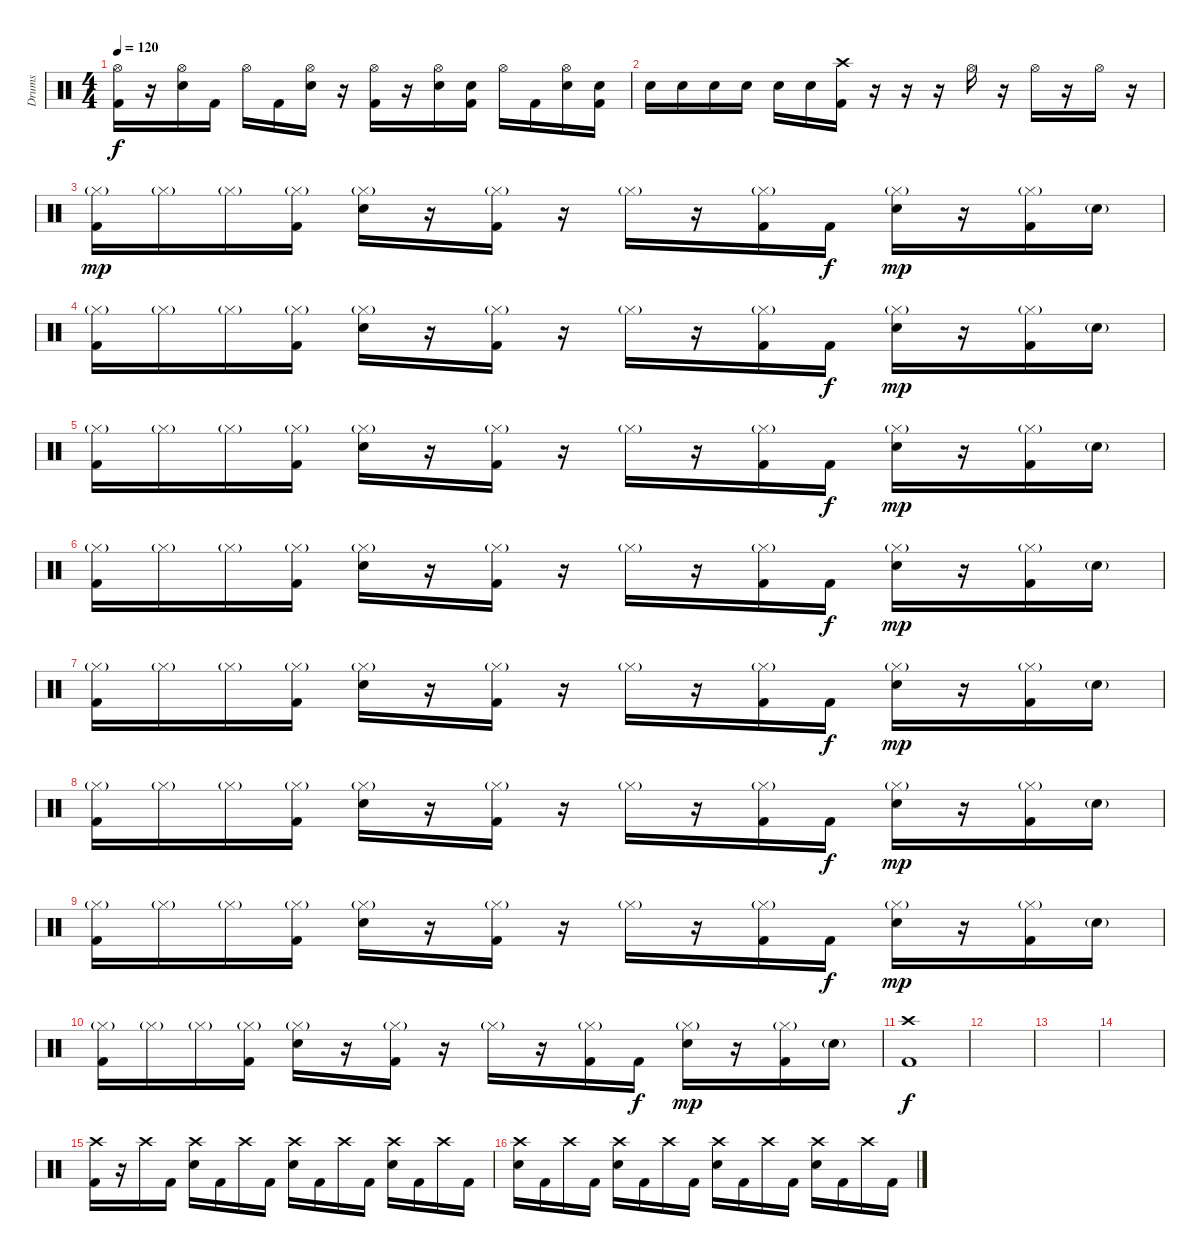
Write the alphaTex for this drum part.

\track ("Drums" "Drums") {instrument percussion}
\staff {score}
\articulation defaults
\ts (4 4)
\tempo 120
\clef neutral
\ks c
("Hi-Hat (open)" "Kick (hit) 2").16{dy f} r.16 ("Hi-Hat (open)" "Electric Snare (hit)").16 "Kick (hit) 2".16 "Hi-Hat (open)".16 "Kick (hit) 2".16 ("Hi-Hat (open)" "Electric Snare (hit)").16 r.16 ("Hi-Hat (open)" "Kick (hit) 2").16 r.16 ("Hi-Hat (open)" "Electric Snare (hit)").16 ("Electric Snare (hit)" "Kick (hit) 2").16 "Hi-Hat (open)".16 "Kick (hit) 2".16 ("Hi-Hat (open)" "Electric Snare (hit)").16 ("Electric Snare (hit)" "Kick (hit) 2").16 |
"Electric Snare (hit)".16 "Electric Snare (hit)".16 "Electric Snare (hit)".16 "Electric Snare (hit)".16 "Electric Snare (hit)".16 "Electric Snare (hit)".16 ("Crash high (hit)" "Kick (hit) 2").16 r.16 r.16 r.16 "Hi-Hat (open)".16 r.16 "Hi-Hat (open)".16 r.16 "Hi-Hat (open)".16 r.16 |
("Hi-Hat (closed)"{g} "Kick (hit) 2").16{dy mp} "Hi-Hat (closed)"{g}.16 "Hi-Hat (closed)"{g}.16 ("Hi-Hat (closed)"{g} "Kick (hit) 2").16 ("Hi-Hat (closed)"{g} "Electric Snare (hit)").16 r.16 ("Hi-Hat (closed)"{g} "Kick (hit) 2").16 r.16 "Hi-Hat (closed)"{g}.16 r.16 ("Hi-Hat (closed)"{g} "Kick (hit) 2").16 "Kick (hit) 2".16{dy f} ("Hi-Hat (closed)"{g} "Electric Snare (hit)").16{dy mp} r.16 ("Hi-Hat (closed)"{g} "Kick (hit) 2").16 "Electric Snare (hit)"{g}.16 |
("Hi-Hat (closed)"{g} "Kick (hit) 2").16 "Hi-Hat (closed)"{g}.16 "Hi-Hat (closed)"{g}.16 ("Hi-Hat (closed)"{g} "Kick (hit) 2").16 ("Hi-Hat (closed)"{g} "Electric Snare (hit)").16 r.16 ("Hi-Hat (closed)"{g} "Kick (hit) 2").16 r.16 "Hi-Hat (closed)"{g}.16 r.16 ("Hi-Hat (closed)"{g} "Kick (hit) 2").16 "Kick (hit) 2".16{dy f} ("Hi-Hat (closed)"{g} "Electric Snare (hit)").16{dy mp} r.16 ("Hi-Hat (closed)"{g} "Kick (hit) 2").16 "Electric Snare (hit)"{g}.16 |
("Hi-Hat (closed)"{g} "Kick (hit) 2").16 "Hi-Hat (closed)"{g}.16 "Hi-Hat (closed)"{g}.16 ("Hi-Hat (closed)"{g} "Kick (hit) 2").16 ("Hi-Hat (closed)"{g} "Electric Snare (hit)").16 r.16 ("Hi-Hat (closed)"{g} "Kick (hit) 2").16 r.16 "Hi-Hat (closed)"{g}.16 r.16 ("Hi-Hat (closed)"{g} "Kick (hit) 2").16 "Kick (hit) 2".16{dy f} ("Hi-Hat (closed)"{g} "Electric Snare (hit)").16{dy mp} r.16 ("Hi-Hat (closed)"{g} "Kick (hit) 2").16 "Electric Snare (hit)"{g}.16 |
("Hi-Hat (closed)"{g} "Kick (hit) 2").16 "Hi-Hat (closed)"{g}.16 "Hi-Hat (closed)"{g}.16 ("Hi-Hat (closed)"{g} "Kick (hit) 2").16 ("Hi-Hat (closed)"{g} "Electric Snare (hit)").16 r.16 ("Hi-Hat (closed)"{g} "Kick (hit) 2").16 r.16 "Hi-Hat (closed)"{g}.16 r.16 ("Hi-Hat (closed)"{g} "Kick (hit) 2").16 "Kick (hit) 2".16{dy f} ("Hi-Hat (closed)"{g} "Electric Snare (hit)").16{dy mp} r.16 ("Hi-Hat (closed)"{g} "Kick (hit) 2").16 "Electric Snare (hit)"{g}.16 |
("Hi-Hat (closed)"{g} "Kick (hit) 2").16 "Hi-Hat (closed)"{g}.16 "Hi-Hat (closed)"{g}.16 ("Hi-Hat (closed)"{g} "Kick (hit) 2").16 ("Hi-Hat (closed)"{g} "Electric Snare (hit)").16 r.16 ("Hi-Hat (closed)"{g} "Kick (hit) 2").16 r.16 "Hi-Hat (closed)"{g}.16 r.16 ("Hi-Hat (closed)"{g} "Kick (hit) 2").16 "Kick (hit) 2".16{dy f} ("Hi-Hat (closed)"{g} "Electric Snare (hit)").16{dy mp} r.16 ("Hi-Hat (closed)"{g} "Kick (hit) 2").16 "Electric Snare (hit)"{g}.16 |
("Hi-Hat (closed)"{g} "Kick (hit) 2").16 "Hi-Hat (closed)"{g}.16 "Hi-Hat (closed)"{g}.16 ("Hi-Hat (closed)"{g} "Kick (hit) 2").16 ("Hi-Hat (closed)"{g} "Electric Snare (hit)").16 r.16 ("Hi-Hat (closed)"{g} "Kick (hit) 2").16 r.16 "Hi-Hat (closed)"{g}.16 r.16 ("Hi-Hat (closed)"{g} "Kick (hit) 2").16 "Kick (hit) 2".16{dy f} ("Hi-Hat (closed)"{g} "Electric Snare (hit)").16{dy mp} r.16 ("Hi-Hat (closed)"{g} "Kick (hit) 2").16 "Electric Snare (hit)"{g}.16 |
("Hi-Hat (closed)"{g} "Kick (hit) 2").16 "Hi-Hat (closed)"{g}.16 "Hi-Hat (closed)"{g}.16 ("Hi-Hat (closed)"{g} "Kick (hit) 2").16 ("Hi-Hat (closed)"{g} "Electric Snare (hit)").16 r.16 ("Hi-Hat (closed)"{g} "Kick (hit) 2").16 r.16 "Hi-Hat (closed)"{g}.16 r.16 ("Hi-Hat (closed)"{g} "Kick (hit) 2").16 "Kick (hit) 2".16{dy f} ("Hi-Hat (closed)"{g} "Electric Snare (hit)").16{dy mp} r.16 ("Hi-Hat (closed)"{g} "Kick (hit) 2").16 "Electric Snare (hit)"{g}.16 |
("Hi-Hat (closed)"{g} "Kick (hit) 2").16 "Hi-Hat (closed)"{g}.16 "Hi-Hat (closed)"{g}.16 ("Hi-Hat (closed)"{g} "Kick (hit) 2").16 ("Hi-Hat (closed)"{g} "Electric Snare (hit)").16 r.16 ("Hi-Hat (closed)"{g} "Kick (hit) 2").16 r.16 "Hi-Hat (closed)"{g}.16 r.16 ("Hi-Hat (closed)"{g} "Kick (hit) 2").16 "Kick (hit) 2".16{dy f} ("Hi-Hat (closed)"{g} "Electric Snare (hit)").16{dy mp} r.16 ("Hi-Hat (closed)"{g} "Kick (hit) 2").16 "Electric Snare (hit)"{g}.16 |
("Crash high (hit)" "Kick (hit) 2").1{dy f} |
|
|
|
("Crash high (hit)" "Kick (hit) 2").16 r.16 "Crash high (hit)".16 "Kick (hit) 2".16 ("Crash high (hit)" "Electric Snare (hit)").16 "Kick (hit) 2".16 "Crash high (hit)".16 "Kick (hit) 2".16 ("Crash high (hit)" "Electric Snare (hit)").16 "Kick (hit) 2".16 "Crash high (hit)".16 "Kick (hit) 2".16 ("Crash high (hit)" "Electric Snare (hit)").16 "Kick (hit) 2".16 "Crash high (hit)".16 "Kick (hit) 2".16 |
("Crash high (hit)" "Electric Snare (hit)").16 "Kick (hit) 2".16 "Crash high (hit)".16 "Kick (hit) 2".16 ("Crash high (hit)" "Electric Snare (hit)").16 "Kick (hit) 2".16 "Crash high (hit)".16 "Kick (hit) 2".16 ("Crash high (hit)" "Electric Snare (hit)").16 "Kick (hit) 2".16 "Crash high (hit)".16 "Kick (hit) 2".16 ("Crash high (hit)" "Electric Snare (hit)").16 "Kick (hit) 2".16 "Crash high (hit)".16 "Kick (hit) 2".16
